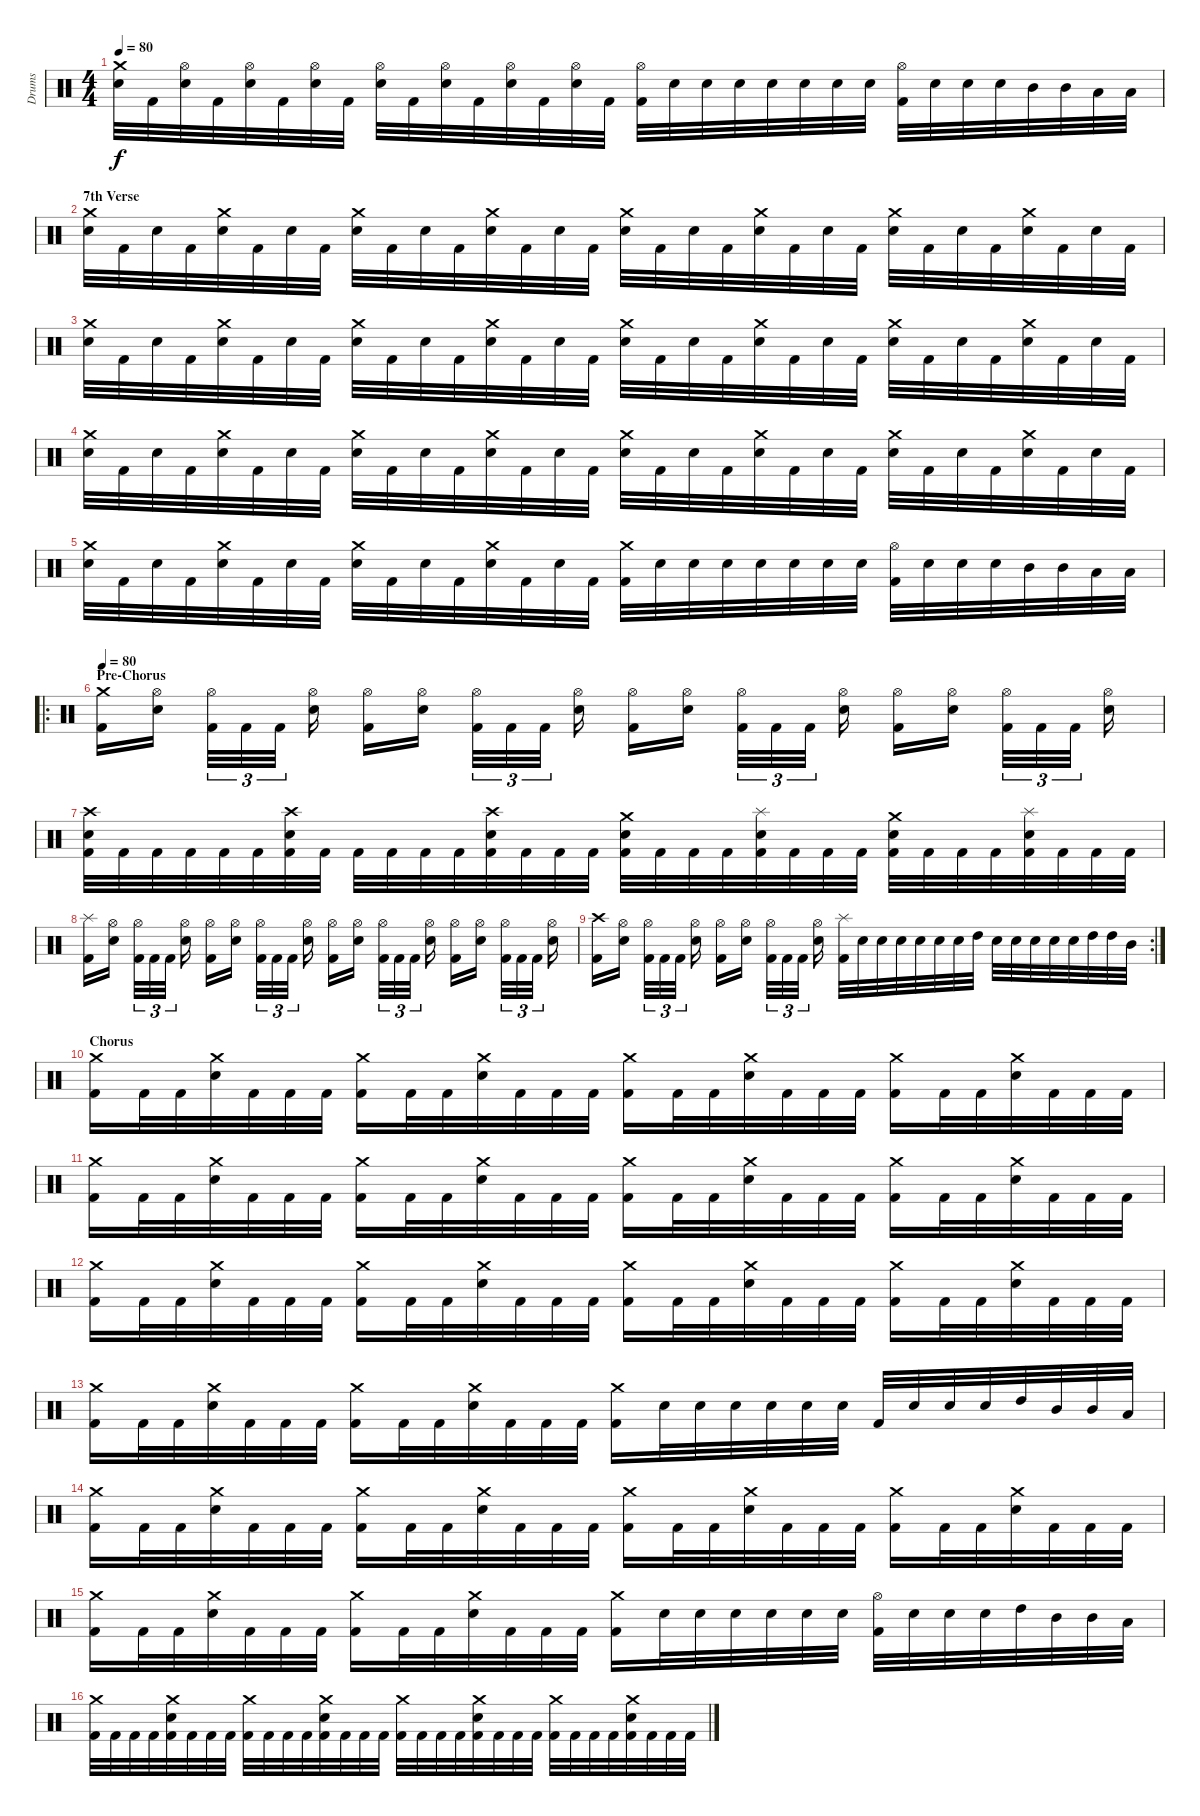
\track ("Drums" "Drums") {instrument percussion}
\staff {score}
\articulation defaults
\ts (4 4)
\tempo 80
\clef neutral
\ks c
("Electric Snare (hit)" "Crash medium (hit)").32{dy f} "Kick (hit) 2".32 ("Electric Snare (hit)" "Hi-Hat (open)").32 "Kick (hit) 2".32 ("Electric Snare (hit)" "Hi-Hat (open)").32 "Kick (hit) 2".32 ("Electric Snare (hit)" "Hi-Hat (open)").32 "Kick (hit) 2".32 ("Electric Snare (hit)" "Hi-Hat (open)").32 "Kick (hit) 2".32 ("Electric Snare (hit)" "Hi-Hat (open)").32 "Kick (hit) 2".32 ("Electric Snare (hit)" "Hi-Hat (open)").32 "Kick (hit) 2".32 ("Electric Snare (hit)" "Hi-Hat (open)").32 "Kick (hit) 2".32 ("Kick (hit) 2" "Hi-Hat (open)").32 "Electric Snare (hit)".32 "Electric Snare (hit)".32 "Electric Snare (hit)".32 "Electric Snare (hit)".32 "Electric Snare (hit)".32 "Electric Snare (hit)".32 "Electric Snare (hit)".32 ("Kick (hit) 2" "Hi-Hat (open)").32 "Electric Snare (hit)".32 "Electric Snare (hit)".32 "Electric Snare (hit)".32 "Mid Tom (hit)".32 "Mid Tom (hit)".32 "Low Tom (hit)".32 "Low Tom (hit)".32 |
\section ("" "7th Verse")
("Electric Snare (hit)" "Crash medium (hit)").32 "Kick (hit) 2".32 "Electric Snare (hit)".32 "Kick (hit) 2".32 ("Electric Snare (hit)" "Crash medium (hit)").32 "Kick (hit) 2".32 "Electric Snare (hit)".32 "Kick (hit) 2".32 ("Electric Snare (hit)" "Crash medium (hit)").32 "Kick (hit) 2".32 "Electric Snare (hit)".32 "Kick (hit) 2".32 ("Electric Snare (hit)" "Crash medium (hit)").32 "Kick (hit) 2".32 "Electric Snare (hit)".32 "Kick (hit) 2".32 ("Electric Snare (hit)" "Crash medium (hit)").32 "Kick (hit) 2".32 "Electric Snare (hit)".32 "Kick (hit) 2".32 ("Electric Snare (hit)" "Crash medium (hit)").32 "Kick (hit) 2".32 "Electric Snare (hit)".32 "Kick (hit) 2".32 ("Electric Snare (hit)" "Crash medium (hit)").32 "Kick (hit) 2".32 "Electric Snare (hit)".32 "Kick (hit) 2".32 ("Electric Snare (hit)" "Crash medium (hit)").32 "Kick (hit) 2".32 "Electric Snare (hit)".32 "Kick (hit) 2".32 |
("Electric Snare (hit)" "Crash medium (hit)").32 "Kick (hit) 2".32 "Electric Snare (hit)".32 "Kick (hit) 2".32 ("Electric Snare (hit)" "Crash medium (hit)").32 "Kick (hit) 2".32 "Electric Snare (hit)".32 "Kick (hit) 2".32 ("Electric Snare (hit)" "Crash medium (hit)").32 "Kick (hit) 2".32 "Electric Snare (hit)".32 "Kick (hit) 2".32 ("Electric Snare (hit)" "Crash medium (hit)").32 "Kick (hit) 2".32 "Electric Snare (hit)".32 "Kick (hit) 2".32 ("Electric Snare (hit)" "Crash medium (hit)").32 "Kick (hit) 2".32 "Electric Snare (hit)".32 "Kick (hit) 2".32 ("Electric Snare (hit)" "Crash medium (hit)").32 "Kick (hit) 2".32 "Electric Snare (hit)".32 "Kick (hit) 2".32 ("Electric Snare (hit)" "Crash medium (hit)").32 "Kick (hit) 2".32 "Electric Snare (hit)".32 "Kick (hit) 2".32 ("Electric Snare (hit)" "Crash medium (hit)").32 "Kick (hit) 2".32 "Electric Snare (hit)".32 "Kick (hit) 2".32 |
("Electric Snare (hit)" "Crash medium (hit)").32 "Kick (hit) 2".32 "Electric Snare (hit)".32 "Kick (hit) 2".32 ("Electric Snare (hit)" "Crash medium (hit)").32 "Kick (hit) 2".32 "Electric Snare (hit)".32 "Kick (hit) 2".32 ("Electric Snare (hit)" "Crash medium (hit)").32 "Kick (hit) 2".32 "Electric Snare (hit)".32 "Kick (hit) 2".32 ("Electric Snare (hit)" "Crash medium (hit)").32 "Kick (hit) 2".32 "Electric Snare (hit)".32 "Kick (hit) 2".32 ("Electric Snare (hit)" "Crash medium (hit)").32 "Kick (hit) 2".32 "Electric Snare (hit)".32 "Kick (hit) 2".32 ("Electric Snare (hit)" "Crash medium (hit)").32 "Kick (hit) 2".32 "Electric Snare (hit)".32 "Kick (hit) 2".32 ("Electric Snare (hit)" "Crash medium (hit)").32 "Kick (hit) 2".32 "Electric Snare (hit)".32 "Kick (hit) 2".32 ("Electric Snare (hit)" "Crash medium (hit)").32 "Kick (hit) 2".32 "Electric Snare (hit)".32 "Kick (hit) 2".32 |
("Electric Snare (hit)" "Crash medium (hit)").32 "Kick (hit) 2".32 "Electric Snare (hit)".32 "Kick (hit) 2".32 ("Electric Snare (hit)" "Crash medium (hit)").32 "Kick (hit) 2".32 "Electric Snare (hit)".32 "Kick (hit) 2".32 ("Electric Snare (hit)" "Crash medium (hit)").32 "Kick (hit) 2".32 "Electric Snare (hit)".32 "Kick (hit) 2".32 ("Electric Snare (hit)" "Crash medium (hit)").32 "Kick (hit) 2".32 "Electric Snare (hit)".32 "Kick (hit) 2".32 ("Kick (hit) 2" "Crash medium (hit)").32 "Electric Snare (hit)".32 "Electric Snare (hit)".32 "Electric Snare (hit)".32 "Electric Snare (hit)".32 "Electric Snare (hit)".32 "Electric Snare (hit)".32 "Electric Snare (hit)".32 ("Kick (hit) 2" "Hi-Hat (open)").32 "Electric Snare (hit)".32 "Electric Snare (hit)".32 "Electric Snare (hit)".32 "Mid Tom (hit)".32 "Mid Tom (hit)".32 "Low Tom (hit)".32 "Low Tom (hit)".32 |
\ro
\section ("" "Pre-Chorus")
\tempo 80
("Crash medium (hit)" "Kick (hit) 2").16 ("Hi-Hat (open)" "Electric Snare (hit)").16 ("Hi-Hat (open)" "Kick (hit) 2").32{tu (3 2)} "Kick (hit) 2".32{tu (3 2)} "Kick (hit) 2".32{tu (3 2)} ("Hi-Hat (open)" "Electric Snare (hit)").16 ("Hi-Hat (open)" "Kick (hit) 2").16 ("Hi-Hat (open)" "Electric Snare (hit)").16 ("Hi-Hat (open)" "Kick (hit) 2").32{tu (3 2)} "Kick (hit) 2".32{tu (3 2)} "Kick (hit) 2".32{tu (3 2)} ("Hi-Hat (open)" "Electric Snare (hit)").16 ("Hi-Hat (open)" "Kick (hit) 2").16 ("Hi-Hat (open)" "Electric Snare (hit)").16 ("Hi-Hat (open)" "Kick (hit) 2").32{tu (3 2)} "Kick (hit) 2".32{tu (3 2)} "Kick (hit) 2".32{tu (3 2)} ("Hi-Hat (open)" "Electric Snare (hit)").16 ("Hi-Hat (open)" "Kick (hit) 2").16 ("Hi-Hat (open)" "Electric Snare (hit)").16 ("Hi-Hat (open)" "Kick (hit) 2").32{tu (3 2)} "Kick (hit) 2".32{tu (3 2)} "Kick (hit) 2".32{tu (3 2)} ("Hi-Hat (open)" "Electric Snare (hit)").16 |
("Crash high (hit)" "Electric Snare (hit)" "Kick (hit) 2").32 "Kick (hit) 2".32 "Kick (hit) 2".32 "Kick (hit) 2".32 "Kick (hit) 2".32 "Kick (hit) 2".32 ("Crash high (hit)" "Electric Snare (hit)" "Kick (hit) 2").32 "Kick (hit) 2".32 "Kick (hit) 2".32 "Kick (hit) 2".32 "Kick (hit) 2".32 "Kick (hit) 2".32 ("Crash high (hit)" "Electric Snare (hit)" "Kick (hit) 2").32 "Kick (hit) 2".32 "Kick (hit) 2".32 "Kick (hit) 2".32 ("Crash medium (hit)" "Electric Snare (hit)" "Kick (hit) 2").32 "Kick (hit) 2".32 "Kick (hit) 2".32 "Kick (hit) 2".32 ("Splash (hit)" "Electric Snare (hit)" "Kick (hit) 2").32 "Kick (hit) 2".32 "Kick (hit) 2".32 "Kick (hit) 2".32 ("Crash medium (hit)" "Electric Snare (hit)" "Kick (hit) 2").32 "Kick (hit) 2".32 "Kick (hit) 2".32 "Kick (hit) 2".32 ("Splash (hit)" "Electric Snare (hit)" "Kick (hit) 2").32 "Kick (hit) 2".32 "Kick (hit) 2".32 "Kick (hit) 2".32 |
("Splash (hit)" "Kick (hit) 2").16 ("Hi-Hat (open)" "Electric Snare (hit)").16 ("Hi-Hat (open)" "Kick (hit) 2").32{tu (3 2)} "Kick (hit) 2".32{tu (3 2)} "Kick (hit) 2".32{tu (3 2)} ("Hi-Hat (open)" "Electric Snare (hit)").16 ("Hi-Hat (open)" "Kick (hit) 2").16 ("Hi-Hat (open)" "Electric Snare (hit)").16 ("Hi-Hat (open)" "Kick (hit) 2").32{tu (3 2)} "Kick (hit) 2".32{tu (3 2)} "Kick (hit) 2".32{tu (3 2)} ("Hi-Hat (open)" "Electric Snare (hit)").16 ("Hi-Hat (open)" "Kick (hit) 2").16 ("Hi-Hat (open)" "Electric Snare (hit)").16 ("Hi-Hat (open)" "Kick (hit) 2").32{tu (3 2)} "Kick (hit) 2".32{tu (3 2)} "Kick (hit) 2".32{tu (3 2)} ("Hi-Hat (open)" "Electric Snare (hit)").16 ("Hi-Hat (open)" "Kick (hit) 2").16 ("Hi-Hat (open)" "Electric Snare (hit)").16 ("Hi-Hat (open)" "Kick (hit) 2").32{tu (3 2)} "Kick (hit) 2".32{tu (3 2)} "Kick (hit) 2".32{tu (3 2)} ("Hi-Hat (open)" "Electric Snare (hit)").16 |
\rc 2
("Crash high (hit)" "Kick (hit) 2").16 ("Hi-Hat (open)" "Electric Snare (hit)").16 ("Hi-Hat (open)" "Kick (hit) 2").32{tu (3 2)} "Kick (hit) 2".32{tu (3 2)} "Kick (hit) 2".32{tu (3 2)} ("Hi-Hat (open)" "Electric Snare (hit)").16 ("Hi-Hat (open)" "Kick (hit) 2").16 ("Hi-Hat (open)" "Electric Snare (hit)").16 ("Hi-Hat (open)" "Kick (hit) 2").32{tu (3 2)} "Kick (hit) 2".32{tu (3 2)} "Kick (hit) 2".32{tu (3 2)} ("Hi-Hat (open)" "Electric Snare (hit)").16 ("Splash (hit)" "Kick (hit) 2").32 "Electric Snare (hit)".32{volume 6} "Electric Snare (hit)".32{volume 16} "Electric Snare (hit)".32 "Electric Snare (hit)".32 "Electric Snare (hit)".32 "Electric Snare (hit)".32 "High Tom (hit)".32 "Electric Snare (hit)".32 "Electric Snare (hit)".32 "Electric Snare (hit)".32 "Electric Snare (hit)".32 "Electric Snare (hit)".32 "High Tom (hit)".32 "High Tom (hit)".32 "Mid Tom (hit)".32 |
\section ("" "Chorus")
("Crash medium (hit)" "Kick (hit) 2").16 "Kick (hit) 2".32 "Kick (hit) 2".32 ("Crash medium (hit)" "Electric Snare (hit)").32 "Kick (hit) 2".32 "Kick (hit) 2".32 "Kick (hit) 2".32 ("Crash medium (hit)" "Kick (hit) 2").16 "Kick (hit) 2".32 "Kick (hit) 2".32 ("Crash medium (hit)" "Electric Snare (hit)").32 "Kick (hit) 2".32 "Kick (hit) 2".32 "Kick (hit) 2".32 ("Crash medium (hit)" "Kick (hit) 2").16 "Kick (hit) 2".32 "Kick (hit) 2".32 ("Crash medium (hit)" "Electric Snare (hit)").32 "Kick (hit) 2".32 "Kick (hit) 2".32 "Kick (hit) 2".32 ("Crash medium (hit)" "Kick (hit) 2").16 "Kick (hit) 2".32 "Kick (hit) 2".32 ("Crash medium (hit)" "Electric Snare (hit)").32 "Kick (hit) 2".32 "Kick (hit) 2".32 "Kick (hit) 2".32 |
("Crash medium (hit)" "Kick (hit) 2").16 "Kick (hit) 2".32 "Kick (hit) 2".32 ("Crash medium (hit)" "Electric Snare (hit)").32 "Kick (hit) 2".32 "Kick (hit) 2".32 "Kick (hit) 2".32 ("Crash medium (hit)" "Kick (hit) 2").16 "Kick (hit) 2".32 "Kick (hit) 2".32 ("Crash medium (hit)" "Electric Snare (hit)").32 "Kick (hit) 2".32 "Kick (hit) 2".32 "Kick (hit) 2".32 ("Crash medium (hit)" "Kick (hit) 2").16 "Kick (hit) 2".32 "Kick (hit) 2".32 ("Crash medium (hit)" "Electric Snare (hit)").32 "Kick (hit) 2".32 "Kick (hit) 2".32 "Kick (hit) 2".32 ("Crash medium (hit)" "Kick (hit) 2").16 "Kick (hit) 2".32 "Kick (hit) 2".32 ("Crash medium (hit)" "Electric Snare (hit)").32 "Kick (hit) 2".32 "Kick (hit) 2".32 "Kick (hit) 2".32 |
("Crash medium (hit)" "Kick (hit) 2").16 "Kick (hit) 2".32 "Kick (hit) 2".32 ("Crash medium (hit)" "Electric Snare (hit)").32 "Kick (hit) 2".32 "Kick (hit) 2".32 "Kick (hit) 2".32 ("Crash medium (hit)" "Kick (hit) 2").16 "Kick (hit) 2".32 "Kick (hit) 2".32 ("Crash medium (hit)" "Electric Snare (hit)").32 "Kick (hit) 2".32 "Kick (hit) 2".32 "Kick (hit) 2".32 ("Crash medium (hit)" "Kick (hit) 2").16 "Kick (hit) 2".32 "Kick (hit) 2".32 ("Crash medium (hit)" "Electric Snare (hit)").32 "Kick (hit) 2".32 "Kick (hit) 2".32 "Kick (hit) 2".32 ("Crash medium (hit)" "Kick (hit) 2").16 "Kick (hit) 2".32 "Kick (hit) 2".32 ("Crash medium (hit)" "Electric Snare (hit)").32 "Kick (hit) 2".32 "Kick (hit) 2".32 "Kick (hit) 2".32 |
("Crash medium (hit)" "Kick (hit) 2").16 "Kick (hit) 2".32 "Kick (hit) 2".32 ("Crash medium (hit)" "Electric Snare (hit)").32 "Kick (hit) 2".32 "Kick (hit) 2".32 "Kick (hit) 2".32 ("Crash medium (hit)" "Kick (hit) 2").16 "Kick (hit) 2".32 "Kick (hit) 2".32 ("Crash medium (hit)" "Electric Snare (hit)").32 "Kick (hit) 2".32 "Kick (hit) 2".32 "Kick (hit) 2".32 ("Crash medium (hit)" "Kick (hit) 2").16 "Electric Snare (hit)".32 "Electric Snare (hit)".32 "Electric Snare (hit)".32 "Electric Snare (hit)".32 "Electric Snare (hit)".32 "Electric Snare (hit)".32 "Kick (hit) 2".32 "Electric Snare (hit)".32 "Electric Snare (hit)".32 "Electric Snare (hit)".32 "High Tom (hit)".32 "Mid Tom (hit)".32 "Mid Tom (hit)".32 "Low Tom (hit)".32 |
("Crash medium (hit)" "Kick (hit) 2").16 "Kick (hit) 2".32 "Kick (hit) 2".32 ("Crash medium (hit)" "Electric Snare (hit)").32 "Kick (hit) 2".32 "Kick (hit) 2".32 "Kick (hit) 2".32 ("Crash medium (hit)" "Kick (hit) 2").16 "Kick (hit) 2".32 "Kick (hit) 2".32 ("Crash medium (hit)" "Electric Snare (hit)").32 "Kick (hit) 2".32 "Kick (hit) 2".32 "Kick (hit) 2".32 ("Crash medium (hit)" "Kick (hit) 2").16 "Kick (hit) 2".32 "Kick (hit) 2".32 ("Crash medium (hit)" "Electric Snare (hit)").32 "Kick (hit) 2".32 "Kick (hit) 2".32 "Kick (hit) 2".32 ("Crash medium (hit)" "Kick (hit) 2").16 "Kick (hit) 2".32 "Kick (hit) 2".32 ("Crash medium (hit)" "Electric Snare (hit)").32 "Kick (hit) 2".32 "Kick (hit) 2".32 "Kick (hit) 2".32 |
("Crash medium (hit)" "Kick (hit) 2").16 "Kick (hit) 2".32 "Kick (hit) 2".32 ("Crash medium (hit)" "Electric Snare (hit)").32 "Kick (hit) 2".32 "Kick (hit) 2".32 "Kick (hit) 2".32 ("Crash medium (hit)" "Kick (hit) 2").16 "Kick (hit) 2".32 "Kick (hit) 2".32 ("Crash medium (hit)" "Electric Snare (hit)").32 "Kick (hit) 2".32 "Kick (hit) 2".32 "Kick (hit) 2".32 ("Crash medium (hit)" "Kick (hit) 2").16 "Electric Snare (hit)".32 "Electric Snare (hit)".32 "Electric Snare (hit)".32 "Electric Snare (hit)".32 "Electric Snare (hit)".32 "Electric Snare (hit)".32 ("Hi-Hat (open)" "Kick (hit) 2").32 "Electric Snare (hit)".32 "Electric Snare (hit)".32 "Electric Snare (hit)".32 "High Tom (hit)".32 "Mid Tom (hit)".32 "Mid Tom (hit)".32 "Low Tom (hit)".32 |
("Crash medium (hit)" "Kick (hit) 2").32 "Kick (hit) 2".32 "Kick (hit) 2".32 "Kick (hit) 2".32 ("Crash medium (hit)" "Electric Snare (hit)" "Kick (hit) 2").32 "Kick (hit) 2".32 "Kick (hit) 2".32 "Kick (hit) 2".32 ("Crash medium (hit)" "Kick (hit) 2").32 "Kick (hit) 2".32 "Kick (hit) 2".32 "Kick (hit) 2".32 ("Crash medium (hit)" "Electric Snare (hit)" "Kick (hit) 2").32 "Kick (hit) 2".32 "Kick (hit) 2".32 "Kick (hit) 2".32 ("Crash medium (hit)" "Kick (hit) 2").32 "Kick (hit) 2".32 "Kick (hit) 2".32 "Kick (hit) 2".32 ("Crash medium (hit)" "Electric Snare (hit)" "Kick (hit) 2").32 "Kick (hit) 2".32 "Kick (hit) 2".32 "Kick (hit) 2".32 ("Crash medium (hit)" "Kick (hit) 2").32 "Kick (hit) 2".32 "Kick (hit) 2".32 "Kick (hit) 2".32 ("Crash medium (hit)" "Electric Snare (hit)" "Kick (hit) 2").32 "Kick (hit) 2".32 "Kick (hit) 2".32 "Kick (hit) 2".32
